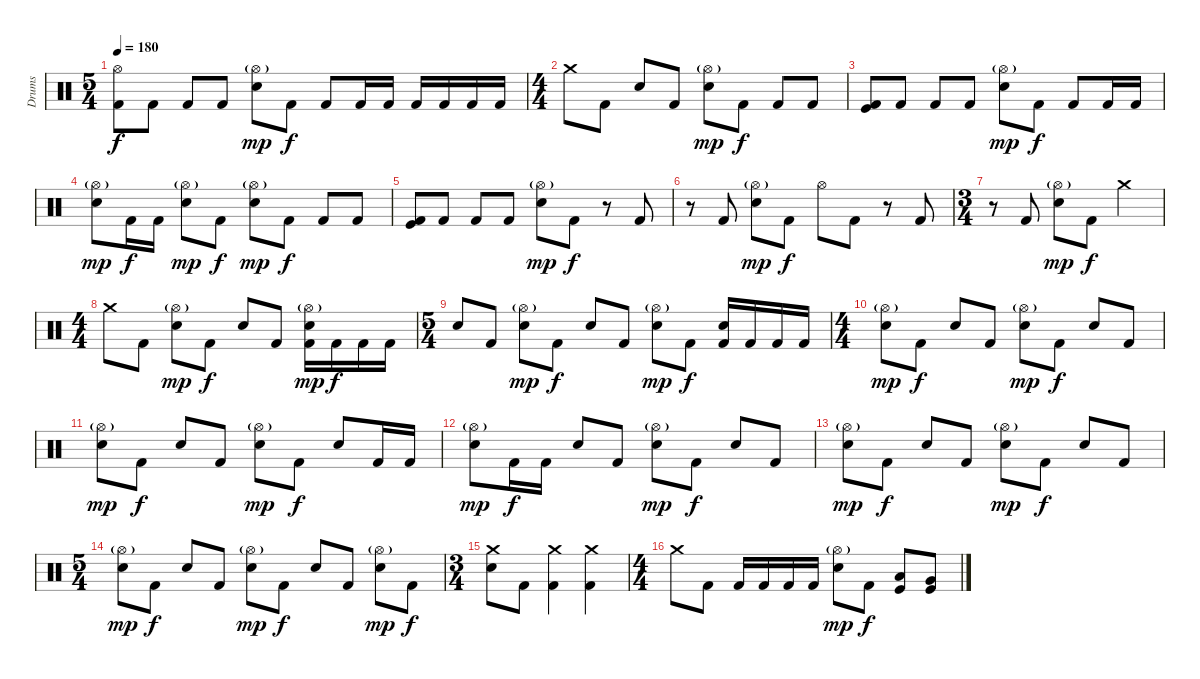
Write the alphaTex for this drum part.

\track ("Drums" "Drums") {instrument percussion}
\staff {score}
\articulation defaults
\ts (5 4)
\tempo 180
\clef neutral
\ks c
("Hi-Hat (open)" "Kick (hit) 2").8{dy f} "Kick (hit) 2".8 "Kick (hit) 2".8 "Kick (hit) 2".8 ("Hi-Hat (open)"{g} "Electric Snare (hit)").8{dy mp} "Kick (hit) 2".8{dy f} "Kick (hit) 2".8 "Kick (hit) 2".16 "Kick (hit) 2".16 "Kick (hit) 2".16 "Kick (hit) 2".16 "Kick (hit) 2".16 "Kick (hit) 2".16 |
\ts (4 4)
"Crash medium (hit)".8 "Kick (hit) 2".8 "Electric Snare (hit)".8 "Kick (hit) 2".8 ("Hi-Hat (open)"{g} "Electric Snare (hit)").8{dy mp} "Kick (hit) 2".8{dy f} "Kick (hit) 2".8 "Kick (hit) 2".8 |
("Kick (hit)" "Kick (hit) 2").8 "Kick (hit) 2".8 "Kick (hit) 2".8 "Kick (hit) 2".8 ("Hi-Hat (open)"{g} "Electric Snare (hit)").8{dy mp} "Kick (hit) 2".8{dy f} "Kick (hit) 2".8 "Kick (hit) 2".16 "Kick (hit) 2".16 |
("Hi-Hat (open)"{g} "Electric Snare (hit)").8{dy mp} "Kick (hit) 2".16{dy f} "Kick (hit) 2".16 ("Hi-Hat (open)"{g} "Electric Snare (hit)").8{dy mp} "Kick (hit) 2".8{dy f} ("Hi-Hat (open)"{g} "Electric Snare (hit)").8{dy mp} "Kick (hit) 2".8{dy f} "Kick (hit) 2".8 "Kick (hit) 2".8 |
("Kick (hit)" "Kick (hit) 2").8 "Kick (hit) 2".8 "Kick (hit) 2".8 "Kick (hit) 2".8 ("Hi-Hat (open)"{g} "Electric Snare (hit)").8{dy mp} "Kick (hit) 2".8{dy f} r.8 "Kick (hit) 2".8 |
r.8 "Kick (hit) 2".8 ("Hi-Hat (open)"{g} "Electric Snare (hit)").8{dy mp} "Kick (hit) 2".8{dy f} "Hi-Hat (open)".8 "Kick (hit) 2".8 r.8 "Kick (hit) 2".8 |
\ts (3 4)
r.8 "Kick (hit) 2".8 ("Hi-Hat (open)"{g} "Electric Snare (hit)").8{dy mp} "Kick (hit) 2".8{dy f} "Crash medium (hit)".4 |
\ts (4 4)
"Crash medium (hit)".8 "Kick (hit) 2".8 ("Hi-Hat (open)"{g} "Electric Snare (hit)").8{dy mp} "Kick (hit) 2".8{dy f} "Electric Snare (hit)".8 "Kick (hit) 2".8 ("Hi-Hat (open)"{g} "Electric Snare (hit)" "Kick (hit) 2").16{dy mp} "Kick (hit) 2".16{dy f} "Kick (hit) 2".16 "Kick (hit) 2".16 |
\ts (5 4)
"Electric Snare (hit)".8 "Kick (hit) 2".8 ("Hi-Hat (open)"{g} "Electric Snare (hit)").8{dy mp} "Kick (hit) 2".8{dy f} "Electric Snare (hit)".8 "Kick (hit) 2".8 ("Hi-Hat (open)"{g} "Electric Snare (hit)").8{dy mp} "Kick (hit) 2".8{dy f} ("Electric Snare (hit)" "Kick (hit) 2").16 "Kick (hit) 2".16 "Kick (hit) 2".16 "Kick (hit) 2".16 |
\ts (4 4)
("Hi-Hat (open)"{g} "Electric Snare (hit)").8{dy mp} "Kick (hit) 2".8{dy f} "Electric Snare (hit)".8 "Kick (hit) 2".8 ("Hi-Hat (open)"{g} "Electric Snare (hit)").8{dy mp} "Kick (hit) 2".8{dy f} "Electric Snare (hit)".8 "Kick (hit) 2".8 |
("Hi-Hat (open)"{g} "Electric Snare (hit)").8{dy mp} "Kick (hit) 2".8{dy f} "Electric Snare (hit)".8 "Kick (hit) 2".8 ("Hi-Hat (open)"{g} "Electric Snare (hit)").8{dy mp} "Kick (hit) 2".8{dy f} "Electric Snare (hit)".8 "Kick (hit) 2".16 "Kick (hit) 2".16 |
("Hi-Hat (open)"{g} "Electric Snare (hit)").8{dy mp} "Kick (hit) 2".16{dy f} "Kick (hit) 2".16 "Electric Snare (hit)".8 "Kick (hit) 2".8 ("Hi-Hat (open)"{g} "Electric Snare (hit)").8{dy mp} "Kick (hit) 2".8{dy f} "Electric Snare (hit)".8 "Kick (hit) 2".8 |
("Hi-Hat (open)"{g} "Electric Snare (hit)").8{dy mp} "Kick (hit) 2".8{dy f} "Electric Snare (hit)".8 "Kick (hit) 2".8 ("Hi-Hat (open)"{g} "Electric Snare (hit)").8{dy mp} "Kick (hit) 2".8{dy f} "Electric Snare (hit)".8 "Kick (hit) 2".8 |
\ts (5 4)
("Hi-Hat (open)"{g} "Electric Snare (hit)").8{dy mp} "Kick (hit) 2".8{dy f} "Electric Snare (hit)".8 "Kick (hit) 2".8 ("Hi-Hat (open)"{g} "Electric Snare (hit)").8{dy mp} "Kick (hit) 2".8{dy f} "Electric Snare (hit)".8 "Kick (hit) 2".8 ("Hi-Hat (open)"{g} "Electric Snare (hit)").8{dy mp} "Kick (hit) 2".8{dy f} |
\ts (3 4)
("Crash medium (hit)" "Electric Snare (hit)").8 "Kick (hit) 2".8 ("Crash medium (hit)" "Kick (hit) 2").4 ("Crash medium (hit)" "Kick (hit) 2").4 |
\ts (4 4)
"Crash medium (hit)".8 "Kick (hit) 2".8 "Kick (hit) 2".16 "Kick (hit) 2".16 "Kick (hit) 2".16 "Kick (hit) 2".16 ("Hi-Hat (open)"{g} "Electric Snare (hit)").8{dy mp} "Kick (hit) 2".8{dy f} ("Low Tom (hit)" "Kick (hit)").8 ("Very Low Tom (hit)" "Kick (hit)").8
